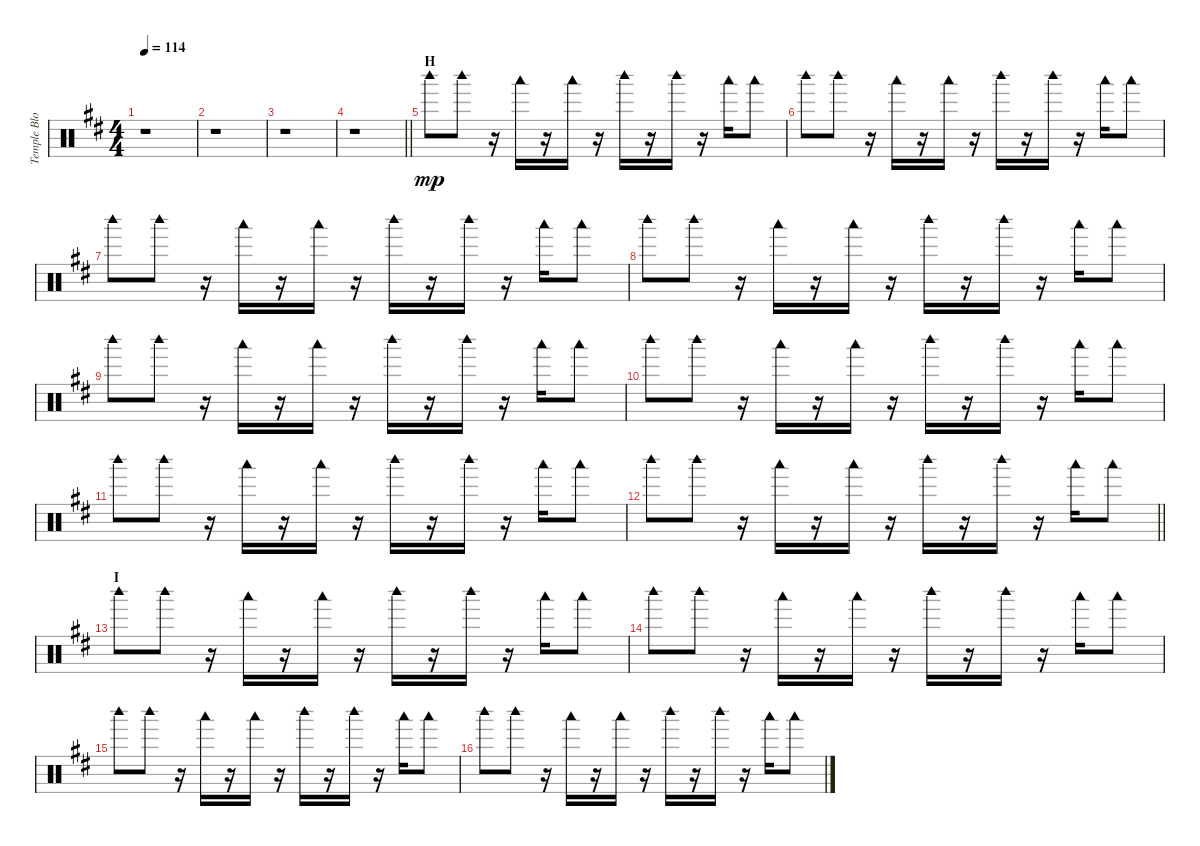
\track ("Temple Block" "Temple Blo") {instrument percussion}
\staff {score}
\articulation defaults
\ts (4 4)
\tempo 114
\clef neutral
\ks d
r.1{dy mp} |
r.1 |
r.1 |
\barLineRight lightlight
r.1 |
\section ("" "H")
"Woodblock high (hit)".8 "Woodblock high (hit)".8 r.16 "Woodblock low (hit)".16 r.16 "Woodblock low (hit)".16 r.16 "Woodblock high (hit)".16 r.16 "Woodblock high (hit)".16 r.16 "Woodblock low (hit)".16 "Woodblock low (hit)".8 |
"Woodblock high (hit)".8 "Woodblock high (hit)".8 r.16 "Woodblock low (hit)".16 r.16 "Woodblock low (hit)".16 r.16 "Woodblock high (hit)".16 r.16 "Woodblock high (hit)".16 r.16 "Woodblock low (hit)".16 "Woodblock low (hit)".8 |
"Woodblock high (hit)".8 "Woodblock high (hit)".8 r.16 "Woodblock low (hit)".16 r.16 "Woodblock low (hit)".16 r.16 "Woodblock high (hit)".16 r.16 "Woodblock high (hit)".16 r.16 "Woodblock low (hit)".16 "Woodblock low (hit)".8 |
"Woodblock high (hit)".8 "Woodblock high (hit)".8 r.16 "Woodblock low (hit)".16 r.16 "Woodblock low (hit)".16 r.16 "Woodblock high (hit)".16 r.16 "Woodblock high (hit)".16 r.16 "Woodblock low (hit)".16 "Woodblock low (hit)".8 |
"Woodblock high (hit)".8 "Woodblock high (hit)".8 r.16 "Woodblock low (hit)".16 r.16 "Woodblock low (hit)".16 r.16 "Woodblock high (hit)".16 r.16 "Woodblock high (hit)".16 r.16 "Woodblock low (hit)".16 "Woodblock low (hit)".8 |
"Woodblock high (hit)".8 "Woodblock high (hit)".8 r.16 "Woodblock low (hit)".16 r.16 "Woodblock low (hit)".16 r.16 "Woodblock high (hit)".16 r.16 "Woodblock high (hit)".16 r.16 "Woodblock low (hit)".16 "Woodblock low (hit)".8 |
"Woodblock high (hit)".8 "Woodblock high (hit)".8 r.16 "Woodblock low (hit)".16 r.16 "Woodblock low (hit)".16 r.16 "Woodblock high (hit)".16 r.16 "Woodblock high (hit)".16 r.16 "Woodblock low (hit)".16 "Woodblock low (hit)".8 |
\barLineRight lightlight "Woodblock high (hit)".8 "Woodblock high (hit)".8
r.16 "Woodblock low (hit)".16 r.16 "Woodblock low (hit)".16 r.16 "Woodblock high (hit)".16 r.16 "Woodblock high (hit)".16 r.16 "Woodblock low (hit)".16 "Woodblock low (hit)".8 |
\section ("" "I")
"Woodblock high (hit)".8 "Woodblock high (hit)".8 r.16 "Woodblock low (hit)".16 r.16 "Woodblock low (hit)".16 r.16 "Woodblock high (hit)".16 r.16 "Woodblock high (hit)".16 r.16 "Woodblock low (hit)".16 "Woodblock low (hit)".8 |
"Woodblock high (hit)".8 "Woodblock high (hit)".8 r.16 "Woodblock low (hit)".16 r.16 "Woodblock low (hit)".16 r.16 "Woodblock high (hit)".16 r.16 "Woodblock high (hit)".16 r.16 "Woodblock low (hit)".16 "Woodblock low (hit)".8 |
"Woodblock high (hit)".8 "Woodblock high (hit)".8 r.16 "Woodblock low (hit)".16 r.16 "Woodblock low (hit)".16 r.16 "Woodblock high (hit)".16 r.16 "Woodblock high (hit)".16 r.16 "Woodblock low (hit)".16 "Woodblock low (hit)".8 |
"Woodblock high (hit)".8 "Woodblock high (hit)".8 r.16 "Woodblock low (hit)".16 r.16 "Woodblock low (hit)".16 r.16 "Woodblock high (hit)".16 r.16 "Woodblock high (hit)".16 r.16 "Woodblock low (hit)".16 "Woodblock low (hit)".8
